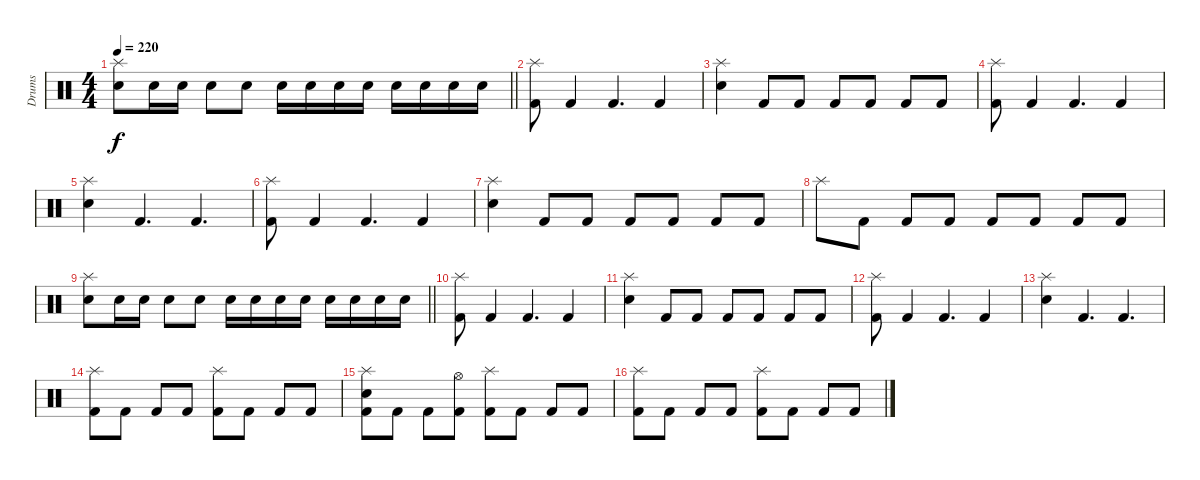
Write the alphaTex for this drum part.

\track ("Drums" "Drums") {instrument percussion}
\staff {score}
\articulation defaults
\ts (4 4)
\tempo 220
\clef neutral
\barLineRight lightlight
\ks c
("Splash (hit)" "Electric Snare (hit)").8{dy f} "Electric Snare (hit)".16 "Electric Snare (hit)".16 "Electric Snare (hit)".8 "Electric Snare (hit)".8 "Electric Snare (hit)".16 "Electric Snare (hit)".16 "Electric Snare (hit)".16 "Electric Snare (hit)".16 "Electric Snare (hit)".16 "Electric Snare (hit)".16 "Electric Snare (hit)".16 "Electric Snare (hit)".16 |
("Splash (hit)" "Kick (hit) 2").8 "Kick (hit) 2".4 "Kick (hit) 2".4{d} "Kick (hit) 2".4 |
("Splash (hit)" "Electric Snare (hit)").4 "Kick (hit) 2".8 "Kick (hit) 2".8 "Kick (hit) 2".8 "Kick (hit) 2".8 "Kick (hit) 2".8 "Kick (hit) 2".8 |
("Splash (hit)" "Kick (hit) 2").8 "Kick (hit) 2".4 "Kick (hit) 2".4{d} "Kick (hit) 2".4 |
("Splash (hit)" "Electric Snare (hit)").4 "Kick (hit) 2".4{d} "Kick (hit) 2".4{d} |
("Splash (hit)" "Kick (hit) 2").8 "Kick (hit) 2".4 "Kick (hit) 2".4{d} "Kick (hit) 2".4 |
("Splash (hit)" "Electric Snare (hit)").4 "Kick (hit) 2".8 "Kick (hit) 2".8 "Kick (hit) 2".8 "Kick (hit) 2".8 "Kick (hit) 2".8 "Kick (hit) 2".8 |
"Splash (hit)".8 "Kick (hit) 2".8 "Kick (hit) 2".8 "Kick (hit) 2".8 "Kick (hit) 2".8 "Kick (hit) 2".8 "Kick (hit) 2".8 "Kick (hit) 2".8 |
\barLineRight lightlight
("Splash (hit)" "Electric Snare (hit)").8 "Electric Snare (hit)".16 "Electric Snare (hit)".16 "Electric Snare (hit)".8 "Electric Snare (hit)".8 "Electric Snare (hit)".16 "Electric Snare (hit)".16 "Electric Snare (hit)".16 "Electric Snare (hit)".16 "Electric Snare (hit)".16 "Electric Snare (hit)".16 "Electric Snare (hit)".16 "Electric Snare (hit)".16 |
\section ("" "")
("Splash (hit)" "Kick (hit) 2").8 "Kick (hit) 2".4 "Kick (hit) 2".4{d} "Kick (hit) 2".4 |
("Splash (hit)" "Electric Snare (hit)").4 "Kick (hit) 2".8 "Kick (hit) 2".8 "Kick (hit) 2".8 "Kick (hit) 2".8 "Kick (hit) 2".8 "Kick (hit) 2".8 |
("Splash (hit)" "Kick (hit) 2").8 "Kick (hit) 2".4 "Kick (hit) 2".4{d} "Kick (hit) 2".4 |
("Splash (hit)" "Electric Snare (hit)").4 "Kick (hit) 2".4{d} "Kick (hit) 2".4{d} |
("Splash (hit)" "Kick (hit) 2").8 "Kick (hit) 2".8 "Kick (hit) 2".8 "Kick (hit) 2".8 ("Splash (hit)" "Kick (hit) 2").8 "Kick (hit) 2".8 "Kick (hit) 2".8 "Kick (hit) 2".8 |
("Splash (hit)" "Electric Snare (hit)" "Kick (hit) 2").8 "Kick (hit) 2".8 "Kick (hit) 2".8 ("Hi-Hat (open)" "Kick (hit) 2").8 ("Splash (hit)" "Kick (hit) 2").8 "Kick (hit) 2".8 "Kick (hit) 2".8 "Kick (hit) 2".8 |
("Splash (hit)" "Kick (hit) 2").8 "Kick (hit) 2".8 "Kick (hit) 2".8 "Kick (hit) 2".8 ("Splash (hit)" "Kick (hit) 2").8 "Kick (hit) 2".8 "Kick (hit) 2".8 "Kick (hit) 2".8
